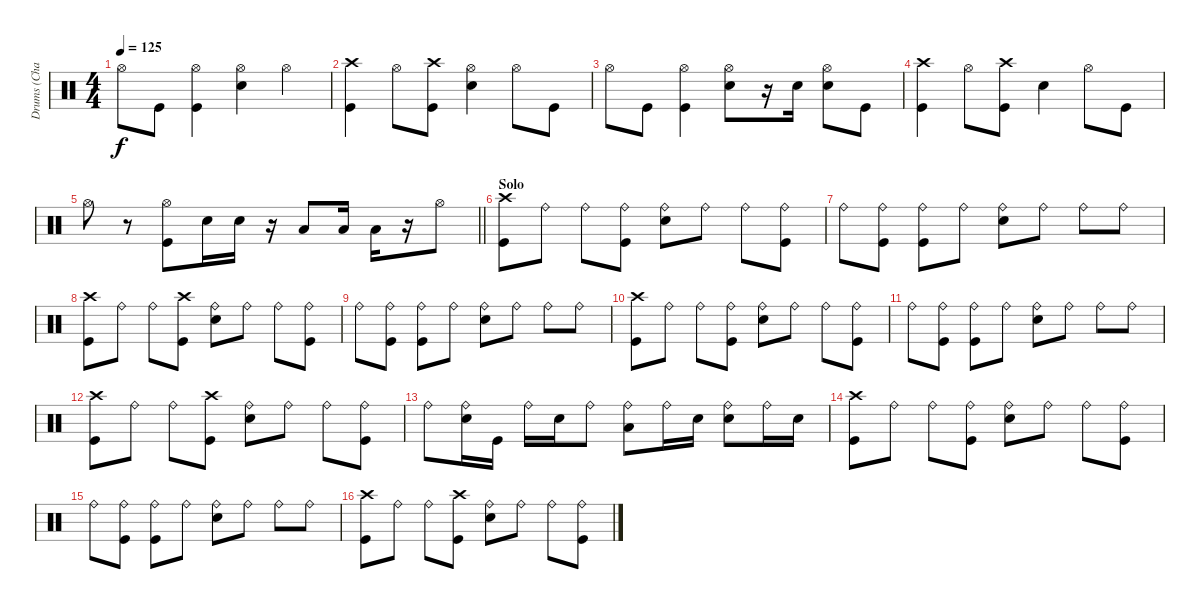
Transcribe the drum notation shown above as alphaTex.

\track ("Drums (Chad Smith)" "Drums (Cha") {instrument percussion}
\staff {score}
\articulation defaults
\ts (4 4)
\tempo 125
\clef neutral
\ks c "Hi-Hat (open)".8{dy f} "Kick (hit)".8
("Hi-Hat (open)" "Kick (hit)").4 ("Hi-Hat (open)" "Snare (hit) 2").4 "Hi-Hat (open)".4 |
("Crash high (hit)" "Kick (hit)").4 "Hi-Hat (open)".8 ("Crash high (hit)" "Kick (hit)").8 ("Hi-Hat (open)" "Snare (hit) 2").4 "Hi-Hat (open)".8 "Kick (hit)".8 |
"Hi-Hat (open)".8 "Kick (hit)".8 ("Hi-Hat (open)" "Kick (hit)").4 ("Hi-Hat (open)" "Snare (hit) 2").8 r.16 "Snare (hit) 2".16 ("Hi-Hat (open)" "Snare (hit) 2").8 "Kick (hit)".8 |
("Crash high (hit)" "Kick (hit)").4 "Hi-Hat (open)".8 ("Crash high (hit)" "Kick (hit)").8 "Snare (hit) 2".4 "Hi-Hat (open)".8 "Kick (hit)".8 |
\barLineRight lightlight "Hi-Hat (open)".8
r.8 ("Hi-Hat (open)" "Kick (hit)").8 "Snare (hit) 2".16 "Snare (hit) 2".16 r.16 "Low Floor Tom (hit)".8 "Low Floor Tom (hit)".16 "Low Floor Tom (hit)".16 r.16 "Hi-Hat (open)".8 |
\section ("" "Solo")
("Crash high (hit)" "Kick (hit)").8 "Ride (bell)".8 "Ride (bell)".8 ("Ride (bell)" "Kick (hit)").8 ("Ride (bell)" "Snare (hit) 2").8 "Ride (bell)".8 "Ride (bell)".8 ("Ride (bell)" "Kick (hit)").8 |
"Ride (bell)".8 ("Ride (bell)" "Kick (hit)").8 ("Ride (bell)" "Kick (hit)").8 "Ride (bell)".8 ("Ride (bell)" "Snare (hit) 2").8 "Ride (bell)".8 "Ride (bell)".8 "Ride (bell)".8 |
("Crash high (hit)" "Kick (hit)").8 "Ride (bell)".8 "Ride (bell)".8 ("Crash high (hit)" "Kick (hit)").8 ("Ride (bell)" "Snare (hit) 2").8 "Ride (bell)".8 "Ride (bell)".8 ("Ride (bell)" "Kick (hit)").8 |
"Ride (bell)".8 ("Ride (bell)" "Kick (hit)").8 ("Ride (bell)" "Kick (hit)").8 "Ride (bell)".8 ("Ride (bell)" "Snare (hit) 2").8 "Ride (bell)".8 "Ride (bell)".8 "Ride (bell)".8 |
("Crash high (hit)" "Kick (hit)").8 "Ride (bell)".8 "Ride (bell)".8 ("Ride (bell)" "Kick (hit)").8 ("Ride (bell)" "Snare (hit) 2").8 "Ride (bell)".8 "Ride (bell)".8 ("Ride (bell)" "Kick (hit)").8 |
"Ride (bell)".8 ("Ride (bell)" "Kick (hit)").8 ("Ride (bell)" "Kick (hit)").8 "Ride (bell)".8 ("Ride (bell)" "Snare (hit) 2").8 "Ride (bell)".8 "Ride (bell)".8 "Ride (bell)".8 |
("Crash high (hit)" "Kick (hit)").8 "Ride (bell)".8 "Ride (bell)".8 ("Crash high (hit)" "Kick (hit)").8 ("Ride (bell)" "Snare (hit) 2").8 "Ride (bell)".8 "Ride (bell)".8 ("Ride (bell)" "Kick (hit)").8 |
"Ride (bell)".8 ("Ride (bell)" "Snare (hit) 2").16 "Kick (hit)".16 "Ride (bell)".16 "Snare (hit) 2".16 "Ride (bell)".8 ("Ride (bell)" "Low Floor Tom (hit)").8 "Ride (bell)".16 "Snare (hit) 2".16 ("Ride (bell)" "Snare (hit) 2").8 "Ride (bell)".16 "Snare (hit) 2".16 |
("Crash high (hit)" "Kick (hit)").8 "Ride (bell)".8 "Ride (bell)".8 ("Ride (bell)" "Kick (hit)").8 ("Ride (bell)" "Snare (hit) 2").8 "Ride (bell)".8 "Ride (bell)".8 ("Ride (bell)" "Kick (hit)").8 |
"Ride (bell)".8 ("Ride (bell)" "Kick (hit)").8 ("Ride (bell)" "Kick (hit)").8 "Ride (bell)".8 ("Ride (bell)" "Snare (hit) 2").8 "Ride (bell)".8 "Ride (bell)".8 "Ride (bell)".8 |
("Crash high (hit)" "Kick (hit)").8 "Ride (bell)".8 "Ride (bell)".8 ("Crash high (hit)" "Kick (hit)").8 ("Ride (bell)" "Snare (hit) 2").8 "Ride (bell)".8 "Ride (bell)".8 ("Ride (bell)" "Kick (hit)").8
